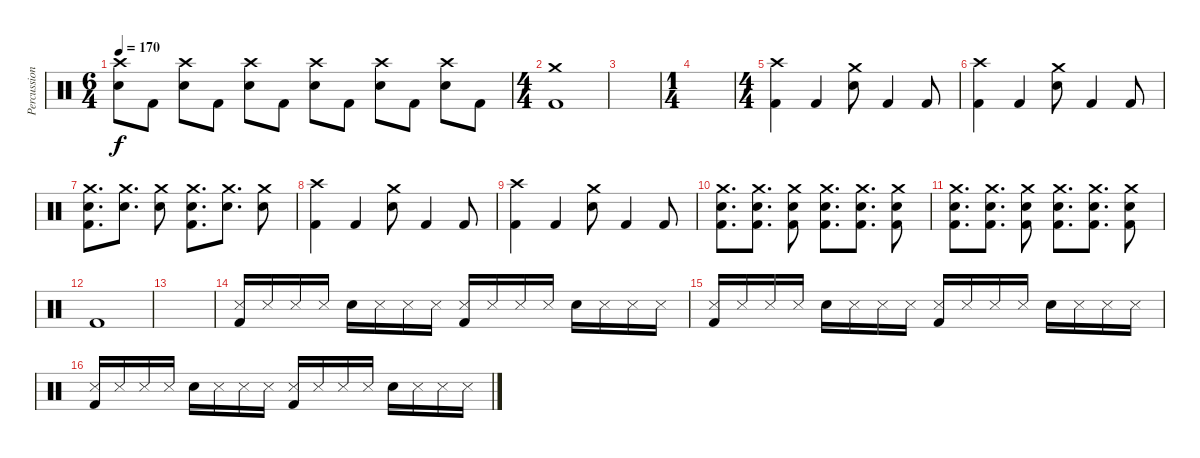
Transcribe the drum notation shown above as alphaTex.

\track ("Percussion" "Percussion") {instrument percussion}
\staff {score}
\articulation defaults
\ts (6 4)
\tempo 170
\clef neutral
\ks c
("Crash high (hit)" "Electric Snare (hit)").8{dy f} "Kick (hit) 2".8 ("Crash high (hit)" "Electric Snare (hit)").8 "Kick (hit) 2".8 ("Crash high (hit)" "Electric Snare (hit)").8 "Kick (hit) 2".8 ("Crash high (hit)" "Electric Snare (hit)").8 "Kick (hit) 2".8 ("Crash high (hit)" "Electric Snare (hit)").8 "Kick (hit) 2".8 ("Crash high (hit)" "Electric Snare (hit)").8 "Kick (hit) 2".8 |
\ts (4 4)
("Crash medium (hit)" "Kick (hit) 2").1 |
|
\ts (1 4)
|
\ts (4 4)
("Crash high (hit)" "Kick (hit) 2").4 "Kick (hit) 2".4 ("Crash medium (hit)" "Electric Snare (hit)").8 "Kick (hit) 2".4 "Kick (hit) 2".8 |
("Crash high (hit)" "Kick (hit) 2").4 "Kick (hit) 2".4 ("Crash medium (hit)" "Electric Snare (hit)").8 "Kick (hit) 2".4 "Kick (hit) 2".8 |
("Crash medium (hit)" "Electric Snare (hit)" "Kick (hit) 2").8{d} ("Crash medium (hit)" "Electric Snare (hit)").8{d} ("Crash medium (hit)" "Electric Snare (hit)").8 ("Crash medium (hit)" "Electric Snare (hit)" "Kick (hit) 2").8{d} ("Crash medium (hit)" "Electric Snare (hit)").8{d} ("Crash medium (hit)" "Electric Snare (hit)").8 |
("Crash high (hit)" "Kick (hit) 2").4 "Kick (hit) 2".4 ("Crash medium (hit)" "Electric Snare (hit)").8 "Kick (hit) 2".4 "Kick (hit) 2".8 |
("Crash high (hit)" "Kick (hit) 2").4 "Kick (hit) 2".4 ("Crash medium (hit)" "Electric Snare (hit)").8 "Kick (hit) 2".4 "Kick (hit) 2".8 |
("Crash medium (hit)" "Electric Snare (hit)" "Kick (hit) 2").8{d} ("Crash medium (hit)" "Electric Snare (hit)" "Kick (hit) 2").8{d} ("Crash medium (hit)" "Electric Snare (hit)" "Kick (hit) 2").8 ("Crash medium (hit)" "Electric Snare (hit)" "Kick (hit) 2").8{d} ("Crash medium (hit)" "Electric Snare (hit)" "Kick (hit) 2").8{d} ("Crash medium (hit)" "Electric Snare (hit)" "Kick (hit) 2").8 |
("Crash medium (hit)" "Electric Snare (hit)" "Kick (hit) 2").8{d} ("Crash medium (hit)" "Electric Snare (hit)" "Kick (hit) 2").8{d} ("Crash medium (hit)" "Electric Snare (hit)" "Kick (hit) 2").8 ("Crash medium (hit)" "Electric Snare (hit)" "Kick (hit) 2").8{d} ("Crash medium (hit)" "Electric Snare (hit)" "Kick (hit) 2").8{d} ("Crash medium (hit)" "Electric Snare (hit)" "Kick (hit) 2").8 |
"Kick (hit) 2".1 |
|
("Snare (side stick) 3" "Kick (hit) 2").16 "Snare (side stick) 3".16 "Snare (side stick) 3".16 "Snare (side stick) 3".16 "Electric Snare (hit)".16 "Snare (side stick) 3".16 "Snare (side stick) 3".16 "Snare (side stick) 3".16 ("Snare (side stick) 3" "Kick (hit) 2").16 "Snare (side stick) 3".16 "Snare (side stick) 3".16 "Snare (side stick) 3".16 "Electric Snare (hit)".16 "Snare (side stick) 3".16 "Snare (side stick) 3".16 "Snare (side stick) 3".16 |
("Snare (side stick) 3" "Kick (hit) 2").16 "Snare (side stick) 3".16 "Snare (side stick) 3".16 "Snare (side stick) 3".16 "Electric Snare (hit)".16 "Snare (side stick) 3".16 "Snare (side stick) 3".16 "Snare (side stick) 3".16 ("Snare (side stick) 3" "Kick (hit) 2").16 "Snare (side stick) 3".16 "Snare (side stick) 3".16 "Snare (side stick) 3".16 "Electric Snare (hit)".16 "Snare (side stick) 3".16 "Snare (side stick) 3".16 "Snare (side stick) 3".16 |
("Snare (side stick) 3" "Kick (hit) 2").16 "Snare (side stick) 3".16 "Snare (side stick) 3".16 "Snare (side stick) 3".16 "Electric Snare (hit)".16 "Snare (side stick) 3".16 "Snare (side stick) 3".16 "Snare (side stick) 3".16 ("Snare (side stick) 3" "Kick (hit) 2").16 "Snare (side stick) 3".16 "Snare (side stick) 3".16 "Snare (side stick) 3".16 "Electric Snare (hit)".16 "Snare (side stick) 3".16 "Snare (side stick) 3".16 "Snare (side stick) 3".16
